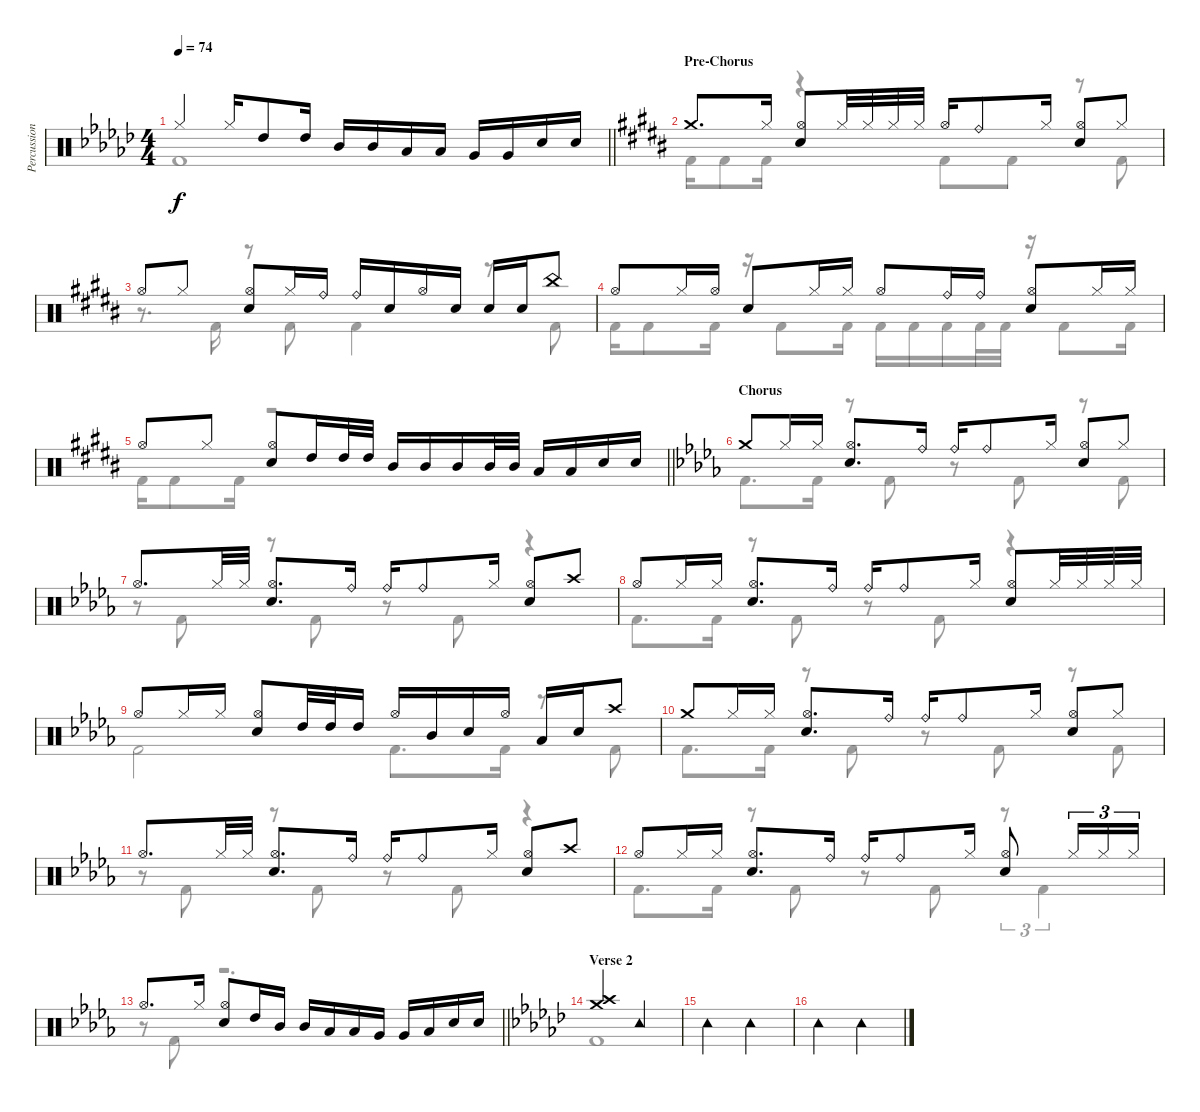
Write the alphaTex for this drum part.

\track ("Percussion" "Percussion") {instrument percussion}
\staff {score}
\articulation defaults
\voice
\ts (4 4)
\tempo 74
\clef neutral
\barLineRight lightlight
\ks ebminor "Hi-Hat (closed)".4{dy f} "Hi-Hat (closed)".16 "High Tom (hit)".8 "High Tom (hit)".16 "Mid Tom (hit)".16 "Mid Tom (hit)".16 "Low Tom (hit)".16 "Low Tom (hit)".16 "Very Low Tom (hit)".16 "Very Low Tom (hit)".16 "Snare (hit) 2".16 "Snare (hit) 2".16
|
\section ("" "Pre-Chorus")
\ks g#minor "Crash medium (hit)".8{d} "Hi-Hat (closed)".16
("Hi-Hat (open)" "Snare (hit) 2").8 "Hi-Hat (closed)".32 "Hi-Hat (closed)".32 "Hi-Hat (closed)".32 "Hi-Hat (closed)".32 "Hi-Hat (open)".16 "Ride (bell)".8 "Hi-Hat (closed)".16 ("Hi-Hat (open)" "Snare (hit) 2").8 "Hi-Hat (closed)".8 |
"Hi-Hat (open)".8 "Hi-Hat (closed)".8 ("Hi-Hat (open)" "Snare (hit) 2").8 "Hi-Hat (closed)".16 "Ride (bell)".16 "Ride (bell)".16 "Snare (hit) 2".16 "Hi-Hat (open)".16 "Snare (hit) 2".16 "Snare (hit) 2".16 "Snare (hit) 2".16 "China (hit)".8 |
"Hi-Hat (open)".8 "Hi-Hat (closed)".16 "Hi-Hat (open)".16 "Snare (hit) 2".8 "Hi-Hat (closed)".16 "Hi-Hat (closed)".16 "Hi-Hat (open)".8 "Ride (bell)".16 "Ride (bell)".16 ("Hi-Hat (open)" "Snare (hit) 2").8 "Hi-Hat (closed)".16 "Hi-Hat (closed)".16 |
\barLineRight lightlight "Hi-Hat (open)".8 "Hi-Hat (closed)".8
("Hi-Hat (open)" "Snare (hit) 2").8 "High Tom (hit)".16 "High Tom (hit)".32 "High Tom (hit)".32 "Mid Tom (hit)".16 "Mid Tom (hit)".16 "Mid Tom (hit)".16 "Mid Tom (hit)".32 "Mid Tom (hit)".32 "Low Tom (hit)".16 "Low Tom (hit)".16 "Snare (hit) 2".16 "Snare (hit) 2".16 |
\section ("" "Chorus")
\ks db "Crash medium (hit)".8 "Hi-Hat (closed)".16 "Hi-Hat (closed)".16
("Hi-Hat (open)" "Snare (hit) 2").8{d} "Ride (bell)".16 "Ride (bell)".16 "Ride (bell)".8 "Hi-Hat (closed)".16 ("Hi-Hat (open)" "Snare (hit) 2").8 "Hi-Hat (closed)".8 |
"Hi-Hat (open)".8{d} "Hi-Hat (closed)".32 "Hi-Hat (closed)".32 ("Hi-Hat (open)" "Snare (hit) 2").8{d} "Ride (bell)".16 "Ride (bell)".16 "Ride (bell)".8 "Hi-Hat (closed)".16 ("Hi-Hat (open)" "Snare (hit) 2").8 "Crash high (hit)".8 |
"Hi-Hat (open)".8 "Hi-Hat (closed)".16 "Hi-Hat (closed)".16 ("Hi-Hat (open)" "Snare (hit) 2").8{d} "Ride (bell)".16 "Ride (bell)".16 "Ride (bell)".8 "Hi-Hat (closed)".16 ("Hi-Hat (open)" "Snare (hit) 2").8 "Hi-Hat (closed)".32 "Hi-Hat (closed)".32 "Hi-Hat (closed)".32 "Hi-Hat (closed)".32 |
"Hi-Hat (open)".8 "Hi-Hat (closed)".16 "Hi-Hat (closed)".16 ("Hi-Hat (open)" "Snare (hit) 2").8 "High Tom (hit)".32 "High Tom (hit)".32 "High Tom (hit)".16 "Hi-Hat (open)".16 "Mid Tom (hit)".16 "Snare (hit) 2".16 "Hi-Hat (open)".16 "Low Tom (hit)".16 "Snare (hit) 2".16 "Crash high (hit)".8 |
"Crash medium (hit)".8 "Hi-Hat (closed)".16 "Hi-Hat (closed)".16 ("Hi-Hat (open)" "Snare (hit) 2").8{d} "Ride (bell)".16 "Ride (bell)".16 "Ride (bell)".8 "Hi-Hat (closed)".16 ("Hi-Hat (open)" "Snare (hit) 2").8 "Hi-Hat (closed)".8 |
"Hi-Hat (open)".8{d} "Hi-Hat (closed)".32 "Hi-Hat (closed)".32 ("Hi-Hat (open)" "Snare (hit) 2").8{d} "Ride (bell)".16 "Ride (bell)".16 "Ride (bell)".8 "Hi-Hat (closed)".16 ("Hi-Hat (open)" "Snare (hit) 2").8 "Crash high (hit)".8 |
"Hi-Hat (open)".8 "Hi-Hat (closed)".16 "Hi-Hat (closed)".16 ("Hi-Hat (open)" "Snare (hit) 2").8{d} "Ride (bell)".16 "Ride (bell)".16 "Ride (bell)".8 "Hi-Hat (closed)".16 ("Hi-Hat (open)" "Snare (hit) 2").8 "Hi-Hat (closed)".16{tu (3 2)} "Hi-Hat (closed)".16{tu (3 2)} "Hi-Hat (closed)".16{tu (3 2)} |
\barLineRight lightlight "Hi-Hat (open)".8{d} "Hi-Hat (closed)".16
("Hi-Hat (open)" "Snare (hit) 2").8 "High Tom (hit)".16 "Mid Tom (hit)".16 "Mid Tom (hit)".16 "Low Tom (hit)".16 "Low Tom (hit)".16 "Very Low Tom (hit)".16 "Very Low Tom (hit)".16 "Low Floor Tom (hit)".16 "Snare (hit) 2".16 "Snare (hit) 2".16 |
\section ("" "Verse 2")
\ks ebminor
("Crash medium (hit)" "Crash high (hit)").2 "Tambourine (hit)".2 |
"Tambourine (hit)".2 "Tambourine (hit)".2 |
"Tambourine (hit)".2 "Tambourine (hit)".2
\voice
\clef neutral
\ottava regular
\simile none
\barLineRight lightlight
\ks ebminor "Kick (hit) 2".1{dy f}
|
\ks g#minor "Kick (hit) 2".16 "Kick (hit) 2".8 "Kick (hit) 2".16
r.4 "Kick (hit) 2".8 "Kick (hit) 2".8 r.8 "Kick (hit) 2".8 |
r.8{d} "Kick (hit) 2".16 r.8 "Kick (hit) 2".8 "Kick (hit) 2".4 r.8 "Kick (hit) 2".8 |
"Kick (hit) 2".16 "Kick (hit) 2".8 "Kick (hit) 2".16 r.16 "Kick (hit) 2".8 "Kick (hit) 2".16 "Kick (hit) 2".16 "Kick (hit) 2".16 "Kick (hit) 2".16 "Kick (hit) 2".32 "Kick (hit) 2".32 r.16 "Kick (hit) 2".8 "Kick (hit) 2".16 |
\barLineRight lightlight "Kick (hit) 2".16 "Kick (hit) 2".8 "Kick (hit) 2".16
r.2{d} |
\ks db "Kick (hit) 2".8{d} "Kick (hit) 2".16
r.8 "Kick (hit) 2".8 r.8 "Kick (hit) 2".8 r.8 "Kick (hit) 2".8 |
r.8 "Kick (hit) 2".8 r.8 "Kick (hit) 2".8 r.8 "Kick (hit) 2".8 r.4 |
"Kick (hit) 2".8{d} "Kick (hit) 2".16 r.8 "Kick (hit) 2".8 r.8 "Kick (hit) 2".8 r.4 |
"Kick (hit) 2".2 "Kick (hit) 2".8{d} "Kick (hit) 2".16 r.8 "Kick (hit) 2".8 |
"Kick (hit) 2".8{d} "Kick (hit) 2".16 r.8 "Kick (hit) 2".8 r.8 "Kick (hit) 2".8 r.8 "Kick (hit) 2".8 |
r.8 "Kick (hit) 2".8 r.8 "Kick (hit) 2".8 r.8 "Kick (hit) 2".8 r.4 |
"Kick (hit) 2".8{d} "Kick (hit) 2".16 r.8 "Kick (hit) 2".8 r.8 "Kick (hit) 2".8 r.8{tu (3 2)} "Kick (hit) 2".4{tu (3 2)} |
\barLineRight lightlight
r.8 "Kick (hit) 2".8 r.2{d} |
\ks ebminor "Kick (hit) 2".1
|
|
